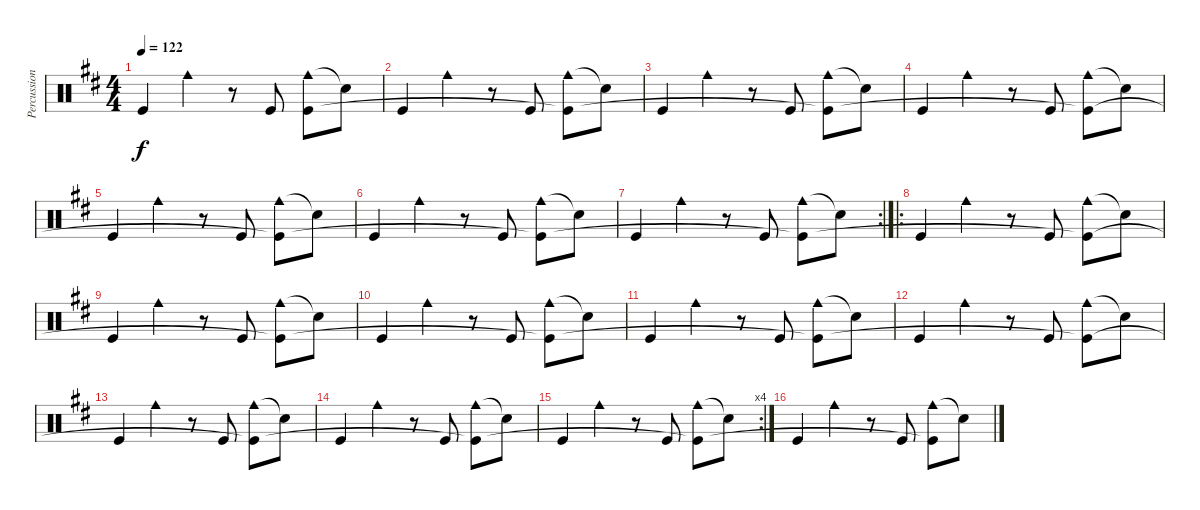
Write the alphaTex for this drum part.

\track ("Percussions" "Percussion") {instrument percussion}
\staff {score}
\articulation defaults
\ts (4 4)
\tempo 122
\clef neutral
\ks d "Kick (hit)".4{dy f} "Cowbell medium (hit)".4
r.8 "Kick (hit)".8 ("Cowbell medium (hit)" "Kick (hit)"{t}).8 "Snare (hit)"{t}.8 |
"Kick (hit)".4 "Cowbell medium (hit)".4 r.8 "Kick (hit)".8 ("Cowbell medium (hit)" "Kick (hit)"{t}).8 "Snare (hit)"{t}.8 |
"Kick (hit)".4 "Cowbell medium (hit)".4 r.8 "Kick (hit)".8 ("Cowbell medium (hit)" "Kick (hit)"{t}).8 "Snare (hit)"{t}.8 |
"Kick (hit)".4 "Cowbell medium (hit)".4 r.8 "Kick (hit)".8 ("Cowbell medium (hit)" "Kick (hit)"{t}).8 "Snare (hit)"{t}.8 |
"Kick (hit)".4 "Cowbell medium (hit)".4 r.8 "Kick (hit)".8 ("Cowbell medium (hit)" "Kick (hit)"{t}).8 "Snare (hit)"{t}.8 |
"Kick (hit)".4 "Cowbell medium (hit)".4 r.8 "Kick (hit)".8 ("Cowbell medium (hit)" "Kick (hit)"{t}).8 "Snare (hit)"{t}.8 |
\rc 2 "Kick (hit)".4 "Cowbell medium (hit)".4
r.8 "Kick (hit)".8 ("Cowbell medium (hit)" "Kick (hit)"{t}).8 "Snare (hit)"{t}.8 |
\ro "Kick (hit)".4 "Cowbell medium (hit)".4
r.8 "Kick (hit)".8 ("Cowbell medium (hit)" "Kick (hit)"{t}).8 "Snare (hit)"{t}.8 |
"Kick (hit)".4 "Cowbell medium (hit)".4 r.8 "Kick (hit)".8 ("Cowbell medium (hit)" "Kick (hit)"{t}).8 "Snare (hit)"{t}.8 |
"Kick (hit)".4 "Cowbell medium (hit)".4 r.8 "Kick (hit)".8 ("Cowbell medium (hit)" "Kick (hit)"{t}).8 "Snare (hit)"{t}.8 |
"Kick (hit)".4 "Cowbell medium (hit)".4 r.8 "Kick (hit)".8 ("Cowbell medium (hit)" "Kick (hit)"{t}).8 "Snare (hit)"{t}.8 |
"Kick (hit)".4 "Cowbell medium (hit)".4 r.8 "Kick (hit)".8 ("Cowbell medium (hit)" "Kick (hit)"{t}).8 "Snare (hit)"{t}.8 |
"Kick (hit)".4 "Cowbell medium (hit)".4 r.8 "Kick (hit)".8 ("Cowbell medium (hit)" "Kick (hit)"{t}).8 "Snare (hit)"{t}.8 |
"Kick (hit)".4 "Cowbell medium (hit)".4 r.8 "Kick (hit)".8 ("Cowbell medium (hit)" "Kick (hit)"{t}).8 "Snare (hit)"{t}.8 |
\rc 4 "Kick (hit)".4 "Cowbell medium (hit)".4
r.8 "Kick (hit)".8 ("Cowbell medium (hit)" "Kick (hit)"{t}).8 "Snare (hit)"{t}.8 |
"Kick (hit)".4 "Cowbell medium (hit)".4 r.8 "Kick (hit)".8 ("Cowbell medium (hit)" "Kick (hit)"{t}).8 "Snare (hit)"{t}.8
